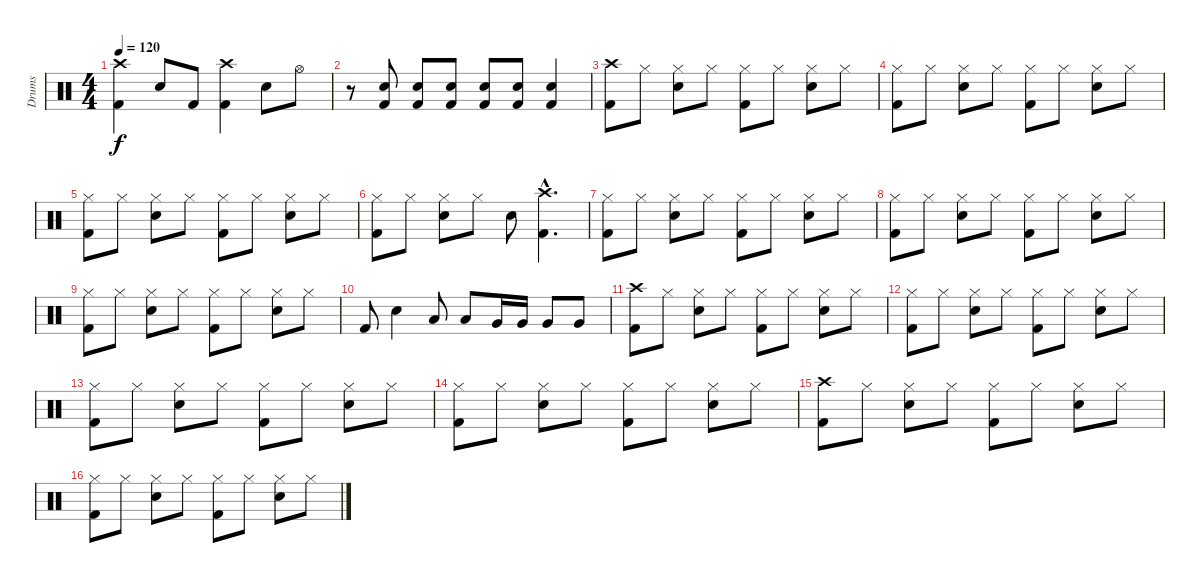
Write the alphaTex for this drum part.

\track ("Drums" "Drums") {instrument percussion}
\staff {score}
\articulation defaults
\ts (4 4)
\tempo 120
\clef neutral
\ks c
("Crash high (hit)" "Kick (hit) 2").4{dy f} "Electric Snare (hit)".8 "Kick (hit) 2".8 ("Crash high (hit)" "Kick (hit) 2").4 "Electric Snare (hit)".8 "Hi-Hat (open)".8 |
r.8 ("Electric Snare (hit)" "Kick (hit) 2").8 ("Electric Snare (hit)" "Kick (hit) 2").8 ("Electric Snare (hit)" "Kick (hit) 2").8 ("Electric Snare (hit)" "Kick (hit) 2").8 ("Electric Snare (hit)" "Kick (hit) 2").8 ("Electric Snare (hit)" "Kick (hit) 2").4 |
("Crash high (hit)" "Kick (hit) 2").8 "Hi-Hat (closed)".8 ("Hi-Hat (closed)" "Electric Snare (hit)").8 "Hi-Hat (closed)".8 ("Hi-Hat (closed)" "Kick (hit) 2").8 "Hi-Hat (closed)".8 ("Hi-Hat (closed)" "Electric Snare (hit)").8 "Hi-Hat (closed)".8 |
("Hi-Hat (closed)" "Kick (hit) 2").8 "Hi-Hat (closed)".8 ("Hi-Hat (closed)" "Electric Snare (hit)").8 "Hi-Hat (closed)".8 ("Hi-Hat (closed)" "Kick (hit) 2").8 "Hi-Hat (closed)".8 ("Hi-Hat (closed)" "Electric Snare (hit)").8 "Hi-Hat (closed)".8 |
("Hi-Hat (closed)" "Kick (hit) 2").8 "Hi-Hat (closed)".8 ("Hi-Hat (closed)" "Electric Snare (hit)").8 "Hi-Hat (closed)".8 ("Hi-Hat (closed)" "Kick (hit) 2").8 "Hi-Hat (closed)".8 ("Hi-Hat (closed)" "Electric Snare (hit)").8 "Hi-Hat (closed)".8 |
("Hi-Hat (closed)" "Kick (hit) 2").8 "Hi-Hat (closed)".8 ("Hi-Hat (closed)" "Electric Snare (hit)").8 "Hi-Hat (closed)".8 "Electric Snare (hit)".8 ("Crash high (hit)"{hac} "Kick (hit) 2"{hac}).4{d} |
("Hi-Hat (closed)" "Kick (hit) 2").8 "Hi-Hat (closed)".8 ("Hi-Hat (closed)" "Electric Snare (hit)").8 "Hi-Hat (closed)".8 ("Hi-Hat (closed)" "Kick (hit) 2").8 "Hi-Hat (closed)".8 ("Hi-Hat (closed)" "Electric Snare (hit)").8 "Hi-Hat (closed)".8 |
("Hi-Hat (closed)" "Kick (hit) 2").8 "Hi-Hat (closed)".8 ("Hi-Hat (closed)" "Electric Snare (hit)").8 "Hi-Hat (closed)".8 ("Hi-Hat (closed)" "Kick (hit) 2").8 "Hi-Hat (closed)".8 ("Hi-Hat (closed)" "Electric Snare (hit)").8 "Hi-Hat (closed)".8 |
("Hi-Hat (closed)" "Kick (hit) 2").8 "Hi-Hat (closed)".8 ("Hi-Hat (closed)" "Electric Snare (hit)").8 "Hi-Hat (closed)".8 ("Hi-Hat (closed)" "Kick (hit) 2").8 "Hi-Hat (closed)".8 ("Hi-Hat (closed)" "Electric Snare (hit)").8 "Hi-Hat (closed)".8 |
"Kick (hit) 2".8 "Electric Snare (hit)".4 "Low Tom (hit)".8 "Low Tom (hit)".8 "Very Low Tom (hit)".16 "Very Low Tom (hit)".16 "Very Low Tom (hit)".8 "Very Low Tom (hit)".8 |
("Crash high (hit)" "Kick (hit) 2").8 "Hi-Hat (closed)".8 ("Hi-Hat (closed)" "Electric Snare (hit)").8 "Hi-Hat (closed)".8 ("Hi-Hat (closed)" "Kick (hit) 2").8 "Hi-Hat (closed)".8 ("Hi-Hat (closed)" "Electric Snare (hit)").8 "Hi-Hat (closed)".8 |
("Hi-Hat (closed)" "Kick (hit) 2").8 "Hi-Hat (closed)".8 ("Hi-Hat (closed)" "Electric Snare (hit)").8 "Hi-Hat (closed)".8 ("Hi-Hat (closed)" "Kick (hit) 2").8 "Hi-Hat (closed)".8 ("Hi-Hat (closed)" "Electric Snare (hit)").8 "Hi-Hat (closed)".8 |
("Hi-Hat (closed)" "Kick (hit) 2").8 "Hi-Hat (closed)".8 ("Hi-Hat (closed)" "Electric Snare (hit)").8 "Hi-Hat (closed)".8 ("Hi-Hat (closed)" "Kick (hit) 2").8 "Hi-Hat (closed)".8 ("Hi-Hat (closed)" "Electric Snare (hit)").8 "Hi-Hat (closed)".8 |
("Hi-Hat (closed)" "Kick (hit) 2").8 "Hi-Hat (closed)".8 ("Hi-Hat (closed)" "Electric Snare (hit)").8 "Hi-Hat (closed)".8 ("Hi-Hat (closed)" "Kick (hit) 2").8 "Hi-Hat (closed)".8 ("Hi-Hat (closed)" "Electric Snare (hit)").8 "Hi-Hat (closed)".8 |
("Crash high (hit)" "Kick (hit) 2").8 "Hi-Hat (closed)".8 ("Hi-Hat (closed)" "Electric Snare (hit)").8 "Hi-Hat (closed)".8 ("Hi-Hat (closed)" "Kick (hit) 2").8 "Hi-Hat (closed)".8 ("Hi-Hat (closed)" "Electric Snare (hit)").8 "Hi-Hat (closed)".8 |
("Hi-Hat (closed)" "Kick (hit) 2").8 "Hi-Hat (closed)".8 ("Hi-Hat (closed)" "Electric Snare (hit)").8 "Hi-Hat (closed)".8 ("Hi-Hat (closed)" "Kick (hit) 2").8 "Hi-Hat (closed)".8 ("Hi-Hat (closed)" "Electric Snare (hit)").8 "Hi-Hat (closed)".8
